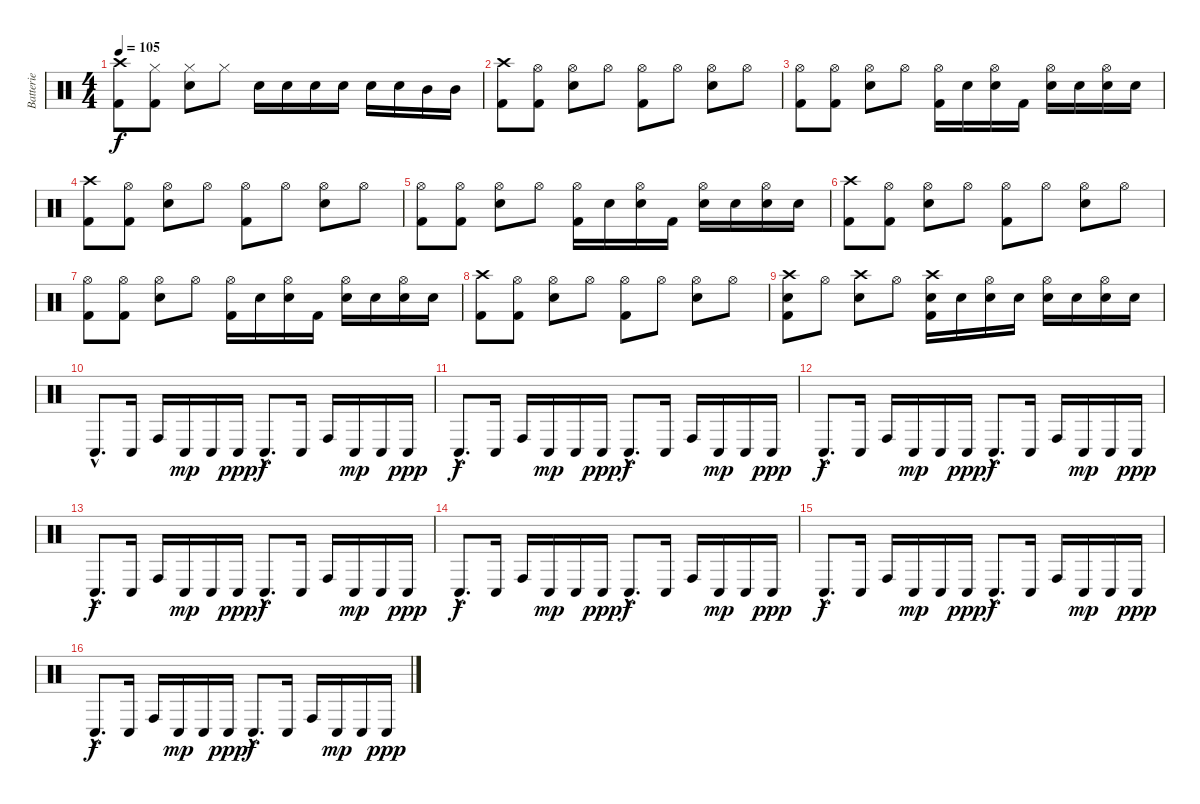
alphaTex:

\track ("Batterie" "Batterie") {instrument percussion}
\staff {score}
\articulation defaults
\ts (4 4)
\tempo 105
\clef neutral
\ks c
("Crash high (hit)" "Kick (hit) 2").8{dy f} ("Hi-Hat (closed)" "Kick (hit) 2").8 ("Hi-Hat (closed)" "Electric Snare (hit)").8 "Hi-Hat (closed)".8 "Electric Snare (hit)".16 "Electric Snare (hit)".16 "Electric Snare (hit)".16 "Electric Snare (hit)".16 "Electric Snare (hit)".16 "Electric Snare (hit)".16 "Mid Tom (hit)".16 "Mid Tom (hit)".16 |
("Crash high (hit)" "Kick (hit) 2").8 ("Hi-Hat (open)" "Kick (hit) 2").8 ("Hi-Hat (open)" "Electric Snare (hit)").8 "Hi-Hat (open)".8 ("Hi-Hat (open)" "Kick (hit) 2").8 "Hi-Hat (open)".8 ("Hi-Hat (open)" "Electric Snare (hit)").8 "Hi-Hat (open)".8 |
("Hi-Hat (open)" "Kick (hit) 2").8 ("Hi-Hat (open)" "Kick (hit) 2").8 ("Hi-Hat (open)" "Electric Snare (hit)").8 "Hi-Hat (open)".8 ("Hi-Hat (open)" "Kick (hit) 2").16 "Electric Snare (hit)".16 ("Hi-Hat (open)" "Electric Snare (hit)").16 "Kick (hit) 2".16 ("Hi-Hat (open)" "Electric Snare (hit)").16 "Electric Snare (hit)".16 ("Hi-Hat (open)" "Electric Snare (hit)").16 "Electric Snare (hit)".16 |
("Crash high (hit)" "Kick (hit) 2").8 ("Hi-Hat (open)" "Kick (hit) 2").8 ("Hi-Hat (open)" "Electric Snare (hit)").8 "Hi-Hat (open)".8 ("Hi-Hat (open)" "Kick (hit) 2").8 "Hi-Hat (open)".8 ("Hi-Hat (open)" "Electric Snare (hit)").8 "Hi-Hat (open)".8 |
("Hi-Hat (open)" "Kick (hit) 2").8 ("Hi-Hat (open)" "Kick (hit) 2").8 ("Hi-Hat (open)" "Electric Snare (hit)").8 "Hi-Hat (open)".8 ("Hi-Hat (open)" "Kick (hit) 2").16 "Electric Snare (hit)".16 ("Hi-Hat (open)" "Electric Snare (hit)").16 "Kick (hit) 2".16 ("Hi-Hat (open)" "Electric Snare (hit)").16 "Electric Snare (hit)".16 ("Hi-Hat (open)" "Electric Snare (hit)").16 "Electric Snare (hit)".16 |
("Crash high (hit)" "Kick (hit) 2").8 ("Hi-Hat (open)" "Kick (hit) 2").8 ("Hi-Hat (open)" "Electric Snare (hit)").8 "Hi-Hat (open)".8 ("Hi-Hat (open)" "Kick (hit) 2").8 "Hi-Hat (open)".8 ("Hi-Hat (open)" "Electric Snare (hit)").8 "Hi-Hat (open)".8 |
("Hi-Hat (open)" "Kick (hit) 2").8 ("Hi-Hat (open)" "Kick (hit) 2").8 ("Hi-Hat (open)" "Electric Snare (hit)").8 "Hi-Hat (open)".8 ("Hi-Hat (open)" "Kick (hit) 2").16 "Electric Snare (hit)".16 ("Hi-Hat (open)" "Electric Snare (hit)").16 "Kick (hit) 2".16 ("Hi-Hat (open)" "Electric Snare (hit)").16 "Electric Snare (hit)".16 ("Hi-Hat (open)" "Electric Snare (hit)").16 "Electric Snare (hit)".16 |
("Crash high (hit)" "Kick (hit) 2").8 ("Hi-Hat (open)" "Kick (hit) 2").8 ("Hi-Hat (open)" "Electric Snare (hit)").8 "Hi-Hat (open)".8 ("Hi-Hat (open)" "Kick (hit) 2").8 "Hi-Hat (open)".8 ("Hi-Hat (open)" "Electric Snare (hit)").8 "Hi-Hat (open)".8 |
("Crash high (hit)" "Kick (hit) 2" "Electric Snare (hit)").8 "Hi-Hat (open)".8 ("Crash high (hit)" "Electric Snare (hit)").8 "Hi-Hat (open)".8 ("Crash high (hit)" "Kick (hit) 2" "Electric Snare (hit)").16 "Electric Snare (hit)".16 ("Hi-Hat (open)" "Electric Snare (hit)").16 "Electric Snare (hit)".16 ("Hi-Hat (open)" "Electric Snare (hit)").16 "Electric Snare (hit)".16 ("Hi-Hat (open)" "Electric Snare (hit)").16 "Electric Snare (hit)".16 |
"Conga low (hit)"{hac}.8{d} "Conga low (hit)".16 "Conga high (hit)".16 "Conga low (hit)".16{dy mp} "Conga low (hit)".16 "Conga low (hit)".16{dy ppp} "Conga low (hit)"{hac}.8{d dy f} "Conga low (hit)".16 "Conga high (hit)".16 "Conga low (hit)".16{dy mp} "Conga low (hit)".16 "Conga low (hit)".16{dy ppp} |
"Conga low (hit)"{hac}.8{d dy f} "Conga low (hit)".16 "Conga high (hit)".16 "Conga low (hit)".16{dy mp} "Conga low (hit)".16 "Conga low (hit)".16{dy ppp} "Conga low (hit)"{hac}.8{d dy f} "Conga low (hit)".16 "Conga high (hit)".16 "Conga low (hit)".16{dy mp} "Conga low (hit)".16 "Conga low (hit)".16{dy ppp} |
"Conga low (hit)"{hac}.8{d dy f} "Conga low (hit)".16 "Conga high (hit)".16 "Conga low (hit)".16{dy mp} "Conga low (hit)".16 "Conga low (hit)".16{dy ppp} "Conga low (hit)"{hac}.8{d dy f} "Conga low (hit)".16 "Conga high (hit)".16 "Conga low (hit)".16{dy mp} "Conga low (hit)".16 "Conga low (hit)".16{dy ppp} |
"Conga low (hit)"{hac}.8{d dy f} "Conga low (hit)".16 "Conga high (hit)".16 "Conga low (hit)".16{dy mp} "Conga low (hit)".16 "Conga low (hit)".16{dy ppp} "Conga low (hit)"{hac}.8{d dy f} "Conga low (hit)".16 "Conga high (hit)".16 "Conga low (hit)".16{dy mp} "Conga low (hit)".16 "Conga low (hit)".16{dy ppp} |
"Conga low (hit)"{hac}.8{d dy f} "Conga low (hit)".16 "Conga high (hit)".16 "Conga low (hit)".16{dy mp} "Conga low (hit)".16 "Conga low (hit)".16{dy ppp} "Conga low (hit)"{hac}.8{d dy f} "Conga low (hit)".16 "Conga high (hit)".16 "Conga low (hit)".16{dy mp} "Conga low (hit)".16 "Conga low (hit)".16{dy ppp} |
"Conga low (hit)"{hac}.8{d dy f} "Conga low (hit)".16 "Conga high (hit)".16 "Conga low (hit)".16{dy mp} "Conga low (hit)".16 "Conga low (hit)".16{dy ppp} "Conga low (hit)"{hac}.8{d dy f} "Conga low (hit)".16 "Conga high (hit)".16 "Conga low (hit)".16{dy mp} "Conga low (hit)".16 "Conga low (hit)".16{dy ppp} |
"Conga low (hit)"{hac}.8{d dy f} "Conga low (hit)".16 "Conga high (hit)".16 "Conga low (hit)".16{dy mp} "Conga low (hit)".16 "Conga low (hit)".16{dy ppp} "Conga low (hit)"{hac}.8{d dy f} "Conga low (hit)".16 "Conga high (hit)".16 "Conga low (hit)".16{dy mp} "Conga low (hit)".16 "Conga low (hit)".16{dy ppp}
